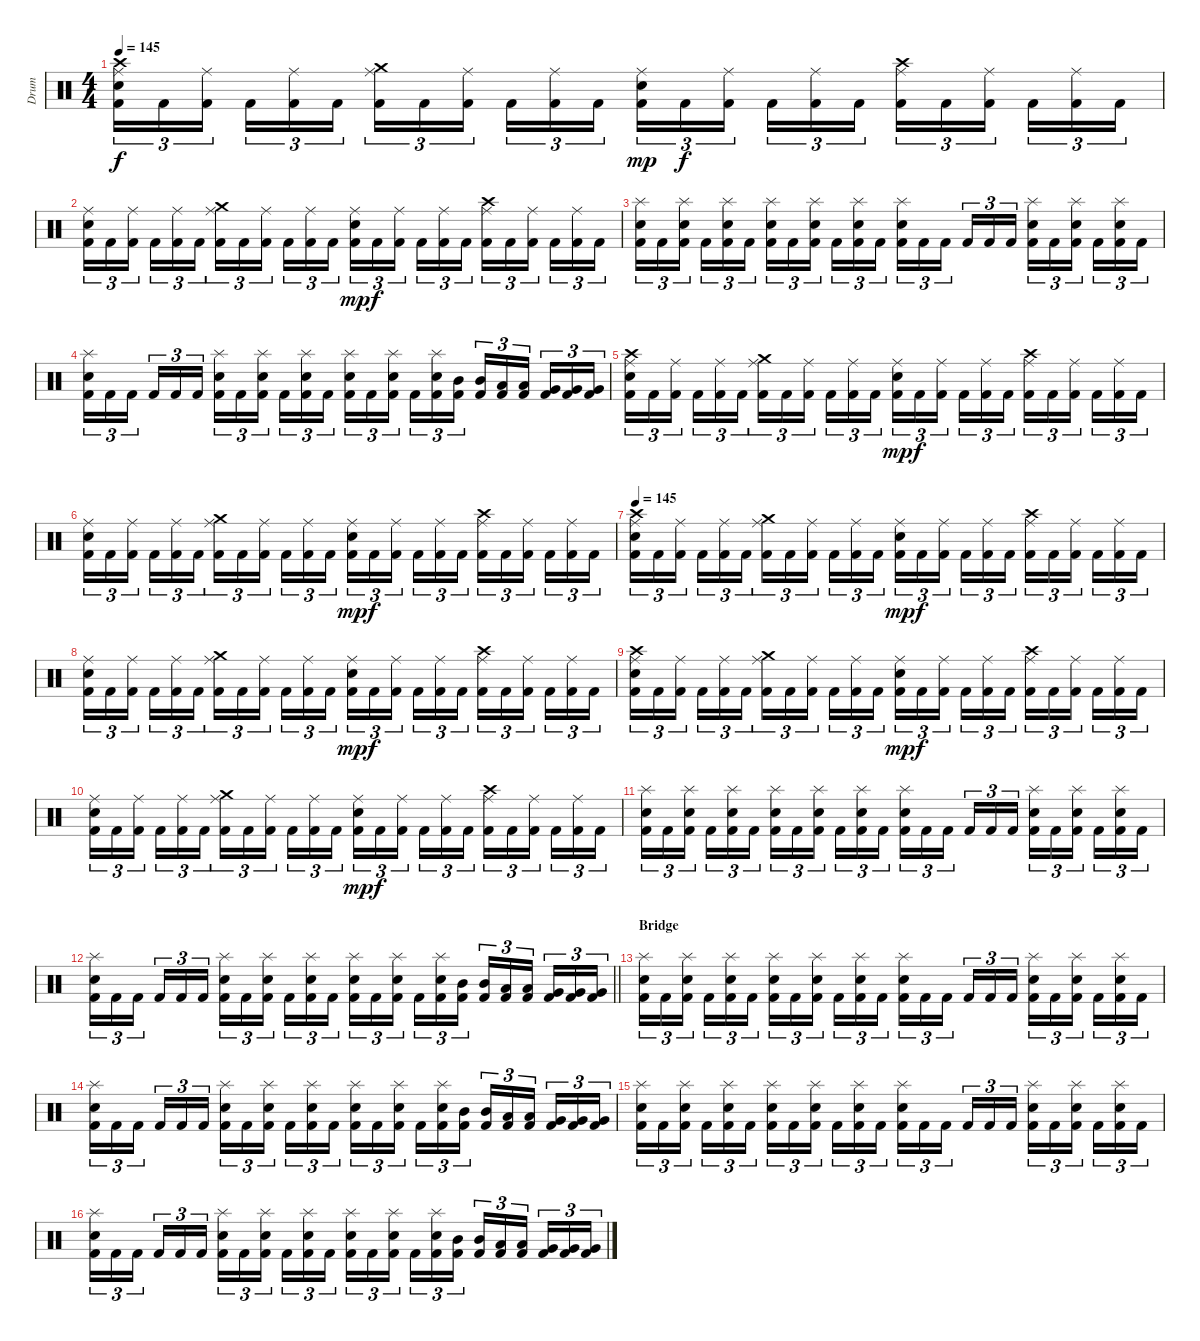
\track ("Drum" "Drum") {instrument percussion}
\staff {score}
\articulation defaults
\ts (4 4)
\tempo 145
\clef neutral
\ks c
("Crash high (hit)" "Ride (middle)" "Electric Snare (hit)" "Kick (hit) 2").16{tu (3 2) dy f} "Kick (hit) 2".16{tu (3 2)} ("Ride (middle)" "Kick (hit) 2").16{tu (3 2) beam splitsecondary} "Kick (hit) 2".16{tu (3 2)} ("Ride (middle)" "Kick (hit) 2").16{tu (3 2)} "Kick (hit) 2".16{tu (3 2)} ("Crash medium (hit)" "Ride (middle)" "Kick (hit) 2").16{tu (3 2)} "Kick (hit) 2".16{tu (3 2)} ("Ride (middle)" "Kick (hit) 2").16{tu (3 2) beam splitsecondary} "Kick (hit) 2".16{tu (3 2)} ("Ride (middle)" "Kick (hit) 2").16{tu (3 2)} "Kick (hit) 2".16{tu (3 2)} ("Ride (middle)" "Electric Snare (hit)" "Kick (hit) 2").16{tu (3 2) dy mp} "Kick (hit) 2".16{tu (3 2) dy f} ("Ride (middle)" "Kick (hit) 2").16{tu (3 2) beam splitsecondary} "Kick (hit) 2".16{tu (3 2)} ("Ride (middle)" "Kick (hit) 2").16{tu (3 2)} "Kick (hit) 2".16{tu (3 2)} ("Crash high (hit)" "Ride (middle)" "Kick (hit) 2").16{tu (3 2)} "Kick (hit) 2".16{tu (3 2)} ("Ride (middle)" "Kick (hit) 2").16{tu (3 2) beam splitsecondary} "Kick (hit) 2".16{tu (3 2)} ("Ride (middle)" "Kick (hit) 2").16{tu (3 2)} "Kick (hit) 2".16{tu (3 2)} |
("Ride (middle)" "Electric Snare (hit)" "Kick (hit) 2").16{tu (3 2)} "Kick (hit) 2".16{tu (3 2)} ("Ride (middle)" "Kick (hit) 2").16{tu (3 2) beam splitsecondary} "Kick (hit) 2".16{tu (3 2)} ("Ride (middle)" "Kick (hit) 2").16{tu (3 2)} "Kick (hit) 2".16{tu (3 2)} ("Crash medium (hit)" "Ride (middle)" "Kick (hit) 2").16{tu (3 2)} "Kick (hit) 2".16{tu (3 2)} ("Ride (middle)" "Kick (hit) 2").16{tu (3 2) beam splitsecondary} "Kick (hit) 2".16{tu (3 2)} ("Ride (middle)" "Kick (hit) 2").16{tu (3 2)} "Kick (hit) 2".16{tu (3 2)} ("Ride (middle)" "Electric Snare (hit)" "Kick (hit) 2").16{tu (3 2) dy mp} "Kick (hit) 2".16{tu (3 2) dy f} ("Ride (middle)" "Kick (hit) 2").16{tu (3 2) beam splitsecondary} "Kick (hit) 2".16{tu (3 2)} ("Ride (middle)" "Kick (hit) 2").16{tu (3 2)} "Kick (hit) 2".16{tu (3 2)} ("Crash high (hit)" "Ride (middle)" "Kick (hit) 2").16{tu (3 2)} "Kick (hit) 2".16{tu (3 2)} ("Ride (middle)" "Kick (hit) 2").16{tu (3 2) beam splitsecondary} "Kick (hit) 2".16{tu (3 2)} ("Ride (middle)" "Kick (hit) 2").16{tu (3 2)} "Kick (hit) 2".16{tu (3 2)} |
("Splash (hit)" "Electric Snare (hit)" "Kick (hit) 2").16{tu (3 2)} "Kick (hit) 2".16{tu (3 2)} ("Splash (hit)" "Electric Snare (hit)" "Kick (hit) 2").16{tu (3 2) beam splitsecondary} "Kick (hit) 2".16{tu (3 2)} ("Splash (hit)" "Electric Snare (hit)" "Kick (hit) 2").16{tu (3 2)} "Kick (hit) 2".16{tu (3 2)} ("Splash (hit)" "Electric Snare (hit)" "Kick (hit) 2").16{tu (3 2)} "Kick (hit) 2".16{tu (3 2)} ("Splash (hit)" "Electric Snare (hit)" "Kick (hit) 2").16{tu (3 2) beam splitsecondary} "Kick (hit) 2".16{tu (3 2)} ("Splash (hit)" "Electric Snare (hit)" "Kick (hit) 2").16{tu (3 2)} "Kick (hit) 2".16{tu (3 2)} ("Splash (hit)" "Electric Snare (hit)" "Kick (hit) 2").16{tu (3 2)} "Kick (hit) 2".16{tu (3 2)} "Kick (hit) 2".16{tu (3 2) beam splitsecondary} "Kick (hit) 2".16{tu (3 2)} "Kick (hit) 2".16{tu (3 2)} "Kick (hit) 2".16{tu (3 2)} ("Splash (hit)" "Electric Snare (hit)" "Kick (hit) 2").16{tu (3 2)} "Kick (hit) 2".16{tu (3 2)} ("Splash (hit)" "Electric Snare (hit)" "Kick (hit) 2").16{tu (3 2) beam splitsecondary} "Kick (hit) 2".16{tu (3 2)} ("Splash (hit)" "Electric Snare (hit)" "Kick (hit) 2").16{tu (3 2)} "Kick (hit) 2".16{tu (3 2)} |
("Splash (hit)" "Electric Snare (hit)" "Kick (hit) 2").16{tu (3 2)} "Kick (hit) 2".16{tu (3 2)} "Kick (hit) 2".16{tu (3 2) beam splitsecondary} "Kick (hit) 2".16{tu (3 2)} "Kick (hit) 2".16{tu (3 2)} "Kick (hit) 2".16{tu (3 2)} ("Splash (hit)" "Electric Snare (hit)" "Kick (hit) 2").16{tu (3 2)} "Kick (hit) 2".16{tu (3 2)} ("Splash (hit)" "Electric Snare (hit)" "Kick (hit) 2").16{tu (3 2) beam splitsecondary} "Kick (hit) 2".16{tu (3 2)} ("Splash (hit)" "Electric Snare (hit)" "Kick (hit) 2").16{tu (3 2)} "Kick (hit) 2".16{tu (3 2)} ("Splash (hit)" "Electric Snare (hit)" "Kick (hit) 2").16{tu (3 2)} "Kick (hit) 2".16{tu (3 2)} ("Splash (hit)" "Electric Snare (hit)" "Kick (hit) 2").16{tu (3 2) beam splitsecondary} "Kick (hit) 2".16{tu (3 2)} ("Splash (hit)" "Electric Snare (hit)" "Kick (hit) 2").16{tu (3 2)} ("Mid Tom (hit)" "Kick (hit) 2").16{tu (3 2)} ("Mid Tom (hit)" "Kick (hit) 2").16{tu (3 2)} ("Low Tom (hit)" "Kick (hit) 2").16{tu (3 2)} ("Low Tom (hit)" "Kick (hit) 2").16{tu (3 2) beam splitsecondary} ("Very Low Tom (hit)" "Kick (hit) 2").16{tu (3 2)} ("Very Low Tom (hit)" "Kick (hit) 2").16{tu (3 2)} ("Very Low Tom (hit)" "Kick (hit) 2").16{tu (3 2)} |
("Crash high (hit)" "Ride (middle)" "Electric Snare (hit)" "Kick (hit) 2").16{tu (3 2)} "Kick (hit) 2".16{tu (3 2)} ("Ride (middle)" "Kick (hit) 2").16{tu (3 2) beam splitsecondary} "Kick (hit) 2".16{tu (3 2)} ("Ride (middle)" "Kick (hit) 2").16{tu (3 2)} "Kick (hit) 2".16{tu (3 2)} ("Crash medium (hit)" "Ride (middle)" "Kick (hit) 2").16{tu (3 2)} "Kick (hit) 2".16{tu (3 2)} ("Ride (middle)" "Kick (hit) 2").16{tu (3 2) beam splitsecondary} "Kick (hit) 2".16{tu (3 2)} ("Ride (middle)" "Kick (hit) 2").16{tu (3 2)} "Kick (hit) 2".16{tu (3 2)} ("Ride (middle)" "Electric Snare (hit)" "Kick (hit) 2").16{tu (3 2) dy mp} "Kick (hit) 2".16{tu (3 2) dy f} ("Ride (middle)" "Kick (hit) 2").16{tu (3 2) beam splitsecondary} "Kick (hit) 2".16{tu (3 2)} ("Ride (middle)" "Kick (hit) 2").16{tu (3 2)} "Kick (hit) 2".16{tu (3 2)} ("Crash high (hit)" "Ride (middle)" "Kick (hit) 2").16{tu (3 2)} "Kick (hit) 2".16{tu (3 2)} ("Ride (middle)" "Kick (hit) 2").16{tu (3 2) beam splitsecondary} "Kick (hit) 2".16{tu (3 2)} ("Ride (middle)" "Kick (hit) 2").16{tu (3 2)} "Kick (hit) 2".16{tu (3 2)} |
("Ride (middle)" "Electric Snare (hit)" "Kick (hit) 2").16{tu (3 2)} "Kick (hit) 2".16{tu (3 2)} ("Ride (middle)" "Kick (hit) 2").16{tu (3 2) beam splitsecondary} "Kick (hit) 2".16{tu (3 2)} ("Ride (middle)" "Kick (hit) 2").16{tu (3 2)} "Kick (hit) 2".16{tu (3 2)} ("Crash medium (hit)" "Ride (middle)" "Kick (hit) 2").16{tu (3 2)} "Kick (hit) 2".16{tu (3 2)} ("Ride (middle)" "Kick (hit) 2").16{tu (3 2) beam splitsecondary} "Kick (hit) 2".16{tu (3 2)} ("Ride (middle)" "Kick (hit) 2").16{tu (3 2)} "Kick (hit) 2".16{tu (3 2)} ("Ride (middle)" "Electric Snare (hit)" "Kick (hit) 2").16{tu (3 2) dy mp} "Kick (hit) 2".16{tu (3 2) dy f} ("Ride (middle)" "Kick (hit) 2").16{tu (3 2) beam splitsecondary} "Kick (hit) 2".16{tu (3 2)} ("Ride (middle)" "Kick (hit) 2").16{tu (3 2)} "Kick (hit) 2".16{tu (3 2)} ("Crash high (hit)" "Ride (middle)" "Kick (hit) 2").16{tu (3 2)} "Kick (hit) 2".16{tu (3 2)} ("Ride (middle)" "Kick (hit) 2").16{tu (3 2) beam splitsecondary} "Kick (hit) 2".16{tu (3 2)} ("Ride (middle)" "Kick (hit) 2").16{tu (3 2)} "Kick (hit) 2".16{tu (3 2)} |
\tempo 145
("Crash high (hit)" "Ride (middle)" "Electric Snare (hit)" "Kick (hit) 2").16{tu (3 2)} "Kick (hit) 2".16{tu (3 2)} ("Ride (middle)" "Kick (hit) 2").16{tu (3 2) beam splitsecondary} "Kick (hit) 2".16{tu (3 2)} ("Ride (middle)" "Kick (hit) 2").16{tu (3 2)} "Kick (hit) 2".16{tu (3 2)} ("Crash medium (hit)" "Ride (middle)" "Kick (hit) 2").16{tu (3 2)} "Kick (hit) 2".16{tu (3 2)} ("Ride (middle)" "Kick (hit) 2").16{tu (3 2) beam splitsecondary} "Kick (hit) 2".16{tu (3 2)} ("Ride (middle)" "Kick (hit) 2").16{tu (3 2)} "Kick (hit) 2".16{tu (3 2)} ("Ride (middle)" "Electric Snare (hit)" "Kick (hit) 2").16{tu (3 2) dy mp} "Kick (hit) 2".16{tu (3 2) dy f} ("Ride (middle)" "Kick (hit) 2").16{tu (3 2) beam splitsecondary} "Kick (hit) 2".16{tu (3 2)} ("Ride (middle)" "Kick (hit) 2").16{tu (3 2)} "Kick (hit) 2".16{tu (3 2)} ("Crash high (hit)" "Ride (middle)" "Kick (hit) 2").16{tu (3 2)} "Kick (hit) 2".16{tu (3 2)} ("Ride (middle)" "Kick (hit) 2").16{tu (3 2) beam splitsecondary} "Kick (hit) 2".16{tu (3 2)} ("Ride (middle)" "Kick (hit) 2").16{tu (3 2)} "Kick (hit) 2".16{tu (3 2)} |
("Ride (middle)" "Electric Snare (hit)" "Kick (hit) 2").16{tu (3 2)} "Kick (hit) 2".16{tu (3 2)} ("Ride (middle)" "Kick (hit) 2").16{tu (3 2) beam splitsecondary} "Kick (hit) 2".16{tu (3 2)} ("Ride (middle)" "Kick (hit) 2").16{tu (3 2)} "Kick (hit) 2".16{tu (3 2)} ("Crash medium (hit)" "Ride (middle)" "Kick (hit) 2").16{tu (3 2)} "Kick (hit) 2".16{tu (3 2)} ("Ride (middle)" "Kick (hit) 2").16{tu (3 2) beam splitsecondary} "Kick (hit) 2".16{tu (3 2)} ("Ride (middle)" "Kick (hit) 2").16{tu (3 2)} "Kick (hit) 2".16{tu (3 2)} ("Ride (middle)" "Electric Snare (hit)" "Kick (hit) 2").16{tu (3 2) dy mp} "Kick (hit) 2".16{tu (3 2) dy f} ("Ride (middle)" "Kick (hit) 2").16{tu (3 2) beam splitsecondary} "Kick (hit) 2".16{tu (3 2)} ("Ride (middle)" "Kick (hit) 2").16{tu (3 2)} "Kick (hit) 2".16{tu (3 2)} ("Crash high (hit)" "Ride (middle)" "Kick (hit) 2").16{tu (3 2)} "Kick (hit) 2".16{tu (3 2)} ("Ride (middle)" "Kick (hit) 2").16{tu (3 2) beam splitsecondary} "Kick (hit) 2".16{tu (3 2)} ("Ride (middle)" "Kick (hit) 2").16{tu (3 2)} "Kick (hit) 2".16{tu (3 2)} |
("Crash high (hit)" "Ride (middle)" "Electric Snare (hit)" "Kick (hit) 2").16{tu (3 2)} "Kick (hit) 2".16{tu (3 2)} ("Ride (middle)" "Kick (hit) 2").16{tu (3 2) beam splitsecondary} "Kick (hit) 2".16{tu (3 2)} ("Ride (middle)" "Kick (hit) 2").16{tu (3 2)} "Kick (hit) 2".16{tu (3 2)} ("Crash medium (hit)" "Ride (middle)" "Kick (hit) 2").16{tu (3 2)} "Kick (hit) 2".16{tu (3 2)} ("Ride (middle)" "Kick (hit) 2").16{tu (3 2) beam splitsecondary} "Kick (hit) 2".16{tu (3 2)} ("Ride (middle)" "Kick (hit) 2").16{tu (3 2)} "Kick (hit) 2".16{tu (3 2)} ("Ride (middle)" "Electric Snare (hit)" "Kick (hit) 2").16{tu (3 2) dy mp} "Kick (hit) 2".16{tu (3 2) dy f} ("Ride (middle)" "Kick (hit) 2").16{tu (3 2) beam splitsecondary} "Kick (hit) 2".16{tu (3 2)} ("Ride (middle)" "Kick (hit) 2").16{tu (3 2)} "Kick (hit) 2".16{tu (3 2)} ("Crash high (hit)" "Ride (middle)" "Kick (hit) 2").16{tu (3 2)} "Kick (hit) 2".16{tu (3 2)} ("Ride (middle)" "Kick (hit) 2").16{tu (3 2) beam splitsecondary} "Kick (hit) 2".16{tu (3 2)} ("Ride (middle)" "Kick (hit) 2").16{tu (3 2)} "Kick (hit) 2".16{tu (3 2)} |
("Ride (middle)" "Electric Snare (hit)" "Kick (hit) 2").16{tu (3 2)} "Kick (hit) 2".16{tu (3 2)} ("Ride (middle)" "Kick (hit) 2").16{tu (3 2) beam splitsecondary} "Kick (hit) 2".16{tu (3 2)} ("Ride (middle)" "Kick (hit) 2").16{tu (3 2)} "Kick (hit) 2".16{tu (3 2)} ("Crash medium (hit)" "Ride (middle)" "Kick (hit) 2").16{tu (3 2)} "Kick (hit) 2".16{tu (3 2)} ("Ride (middle)" "Kick (hit) 2").16{tu (3 2) beam splitsecondary} "Kick (hit) 2".16{tu (3 2)} ("Ride (middle)" "Kick (hit) 2").16{tu (3 2)} "Kick (hit) 2".16{tu (3 2)} ("Ride (middle)" "Electric Snare (hit)" "Kick (hit) 2").16{tu (3 2) dy mp} "Kick (hit) 2".16{tu (3 2) dy f} ("Ride (middle)" "Kick (hit) 2").16{tu (3 2) beam splitsecondary} "Kick (hit) 2".16{tu (3 2)} ("Ride (middle)" "Kick (hit) 2").16{tu (3 2)} "Kick (hit) 2".16{tu (3 2)} ("Crash high (hit)" "Ride (middle)" "Kick (hit) 2").16{tu (3 2)} "Kick (hit) 2".16{tu (3 2)} ("Ride (middle)" "Kick (hit) 2").16{tu (3 2) beam splitsecondary} "Kick (hit) 2".16{tu (3 2)} ("Ride (middle)" "Kick (hit) 2").16{tu (3 2)} "Kick (hit) 2".16{tu (3 2)} |
("Splash (hit)" "Electric Snare (hit)" "Kick (hit) 2").16{tu (3 2)} "Kick (hit) 2".16{tu (3 2)} ("Splash (hit)" "Electric Snare (hit)" "Kick (hit) 2").16{tu (3 2) beam splitsecondary} "Kick (hit) 2".16{tu (3 2)} ("Splash (hit)" "Electric Snare (hit)" "Kick (hit) 2").16{tu (3 2)} "Kick (hit) 2".16{tu (3 2)} ("Splash (hit)" "Electric Snare (hit)" "Kick (hit) 2").16{tu (3 2)} "Kick (hit) 2".16{tu (3 2)} ("Splash (hit)" "Electric Snare (hit)" "Kick (hit) 2").16{tu (3 2) beam splitsecondary} "Kick (hit) 2".16{tu (3 2)} ("Splash (hit)" "Electric Snare (hit)" "Kick (hit) 2").16{tu (3 2)} "Kick (hit) 2".16{tu (3 2)} ("Splash (hit)" "Electric Snare (hit)" "Kick (hit) 2").16{tu (3 2)} "Kick (hit) 2".16{tu (3 2)} "Kick (hit) 2".16{tu (3 2) beam splitsecondary} "Kick (hit) 2".16{tu (3 2)} "Kick (hit) 2".16{tu (3 2)} "Kick (hit) 2".16{tu (3 2)} ("Splash (hit)" "Electric Snare (hit)" "Kick (hit) 2").16{tu (3 2)} "Kick (hit) 2".16{tu (3 2)} ("Splash (hit)" "Electric Snare (hit)" "Kick (hit) 2").16{tu (3 2) beam splitsecondary} "Kick (hit) 2".16{tu (3 2)} ("Splash (hit)" "Electric Snare (hit)" "Kick (hit) 2").16{tu (3 2)} "Kick (hit) 2".16{tu (3 2)} |
\barLineRight lightlight
("Splash (hit)" "Electric Snare (hit)" "Kick (hit) 2").16{tu (3 2)} "Kick (hit) 2".16{tu (3 2)} "Kick (hit) 2".16{tu (3 2) beam splitsecondary} "Kick (hit) 2".16{tu (3 2)} "Kick (hit) 2".16{tu (3 2)} "Kick (hit) 2".16{tu (3 2)} ("Splash (hit)" "Electric Snare (hit)" "Kick (hit) 2").16{tu (3 2)} "Kick (hit) 2".16{tu (3 2)} ("Splash (hit)" "Electric Snare (hit)" "Kick (hit) 2").16{tu (3 2) beam splitsecondary} "Kick (hit) 2".16{tu (3 2)} ("Splash (hit)" "Electric Snare (hit)" "Kick (hit) 2").16{tu (3 2)} "Kick (hit) 2".16{tu (3 2)} ("Splash (hit)" "Electric Snare (hit)" "Kick (hit) 2").16{tu (3 2)} "Kick (hit) 2".16{tu (3 2)} ("Splash (hit)" "Electric Snare (hit)" "Kick (hit) 2").16{tu (3 2) beam splitsecondary} "Kick (hit) 2".16{tu (3 2)} ("Splash (hit)" "Electric Snare (hit)" "Kick (hit) 2").16{tu (3 2)} ("Mid Tom (hit)" "Kick (hit) 2").16{tu (3 2)} ("Mid Tom (hit)" "Kick (hit) 2").16{tu (3 2)} ("Low Tom (hit)" "Kick (hit) 2").16{tu (3 2)} ("Low Tom (hit)" "Kick (hit) 2").16{tu (3 2) beam splitsecondary} ("Very Low Tom (hit)" "Kick (hit) 2").16{tu (3 2)} ("Very Low Tom (hit)" "Kick (hit) 2").16{tu (3 2)} ("Very Low Tom (hit)" "Kick (hit) 2").16{tu (3 2)} |
\section ("" "Bridge")
("Splash (hit)" "Electric Snare (hit)" "Kick (hit) 2").16{tu (3 2)} "Kick (hit) 2".16{tu (3 2)} ("Splash (hit)" "Electric Snare (hit)" "Kick (hit) 2").16{tu (3 2) beam splitsecondary} "Kick (hit) 2".16{tu (3 2)} ("Splash (hit)" "Electric Snare (hit)" "Kick (hit) 2").16{tu (3 2)} "Kick (hit) 2".16{tu (3 2)} ("Splash (hit)" "Electric Snare (hit)" "Kick (hit) 2").16{tu (3 2)} "Kick (hit) 2".16{tu (3 2)} ("Splash (hit)" "Electric Snare (hit)" "Kick (hit) 2").16{tu (3 2) beam splitsecondary} "Kick (hit) 2".16{tu (3 2)} ("Splash (hit)" "Electric Snare (hit)" "Kick (hit) 2").16{tu (3 2)} "Kick (hit) 2".16{tu (3 2)} ("Splash (hit)" "Electric Snare (hit)" "Kick (hit) 2").16{tu (3 2)} "Kick (hit) 2".16{tu (3 2)} "Kick (hit) 2".16{tu (3 2) beam splitsecondary} "Kick (hit) 2".16{tu (3 2)} "Kick (hit) 2".16{tu (3 2)} "Kick (hit) 2".16{tu (3 2)} ("Splash (hit)" "Electric Snare (hit)" "Kick (hit) 2").16{tu (3 2)} "Kick (hit) 2".16{tu (3 2)} ("Splash (hit)" "Electric Snare (hit)" "Kick (hit) 2").16{tu (3 2) beam splitsecondary} "Kick (hit) 2".16{tu (3 2)} ("Splash (hit)" "Electric Snare (hit)" "Kick (hit) 2").16{tu (3 2)} "Kick (hit) 2".16{tu (3 2)} |
("Splash (hit)" "Electric Snare (hit)" "Kick (hit) 2").16{tu (3 2)} "Kick (hit) 2".16{tu (3 2)} "Kick (hit) 2".16{tu (3 2) beam splitsecondary} "Kick (hit) 2".16{tu (3 2)} "Kick (hit) 2".16{tu (3 2)} "Kick (hit) 2".16{tu (3 2)} ("Splash (hit)" "Electric Snare (hit)" "Kick (hit) 2").16{tu (3 2)} "Kick (hit) 2".16{tu (3 2)} ("Splash (hit)" "Electric Snare (hit)" "Kick (hit) 2").16{tu (3 2) beam splitsecondary} "Kick (hit) 2".16{tu (3 2)} ("Splash (hit)" "Electric Snare (hit)" "Kick (hit) 2").16{tu (3 2)} "Kick (hit) 2".16{tu (3 2)} ("Splash (hit)" "Electric Snare (hit)" "Kick (hit) 2").16{tu (3 2)} "Kick (hit) 2".16{tu (3 2)} ("Splash (hit)" "Electric Snare (hit)" "Kick (hit) 2").16{tu (3 2) beam splitsecondary} "Kick (hit) 2".16{tu (3 2)} ("Splash (hit)" "Electric Snare (hit)" "Kick (hit) 2").16{tu (3 2)} ("Mid Tom (hit)" "Kick (hit) 2").16{tu (3 2)} ("Mid Tom (hit)" "Kick (hit) 2").16{tu (3 2)} ("Low Tom (hit)" "Kick (hit) 2").16{tu (3 2)} ("Low Tom (hit)" "Kick (hit) 2").16{tu (3 2) beam splitsecondary} ("Very Low Tom (hit)" "Kick (hit) 2").16{tu (3 2)} ("Very Low Tom (hit)" "Kick (hit) 2").16{tu (3 2)} ("Very Low Tom (hit)" "Kick (hit) 2").16{tu (3 2)} |
("Splash (hit)" "Electric Snare (hit)" "Kick (hit) 2").16{tu (3 2)} "Kick (hit) 2".16{tu (3 2)} ("Splash (hit)" "Electric Snare (hit)" "Kick (hit) 2").16{tu (3 2) beam splitsecondary} "Kick (hit) 2".16{tu (3 2)} ("Splash (hit)" "Electric Snare (hit)" "Kick (hit) 2").16{tu (3 2)} "Kick (hit) 2".16{tu (3 2)} ("Splash (hit)" "Electric Snare (hit)" "Kick (hit) 2").16{tu (3 2)} "Kick (hit) 2".16{tu (3 2)} ("Splash (hit)" "Electric Snare (hit)" "Kick (hit) 2").16{tu (3 2) beam splitsecondary} "Kick (hit) 2".16{tu (3 2)} ("Splash (hit)" "Electric Snare (hit)" "Kick (hit) 2").16{tu (3 2)} "Kick (hit) 2".16{tu (3 2)} ("Splash (hit)" "Electric Snare (hit)" "Kick (hit) 2").16{tu (3 2)} "Kick (hit) 2".16{tu (3 2)} "Kick (hit) 2".16{tu (3 2) beam splitsecondary} "Kick (hit) 2".16{tu (3 2)} "Kick (hit) 2".16{tu (3 2)} "Kick (hit) 2".16{tu (3 2)} ("Splash (hit)" "Electric Snare (hit)" "Kick (hit) 2").16{tu (3 2)} "Kick (hit) 2".16{tu (3 2)} ("Splash (hit)" "Electric Snare (hit)" "Kick (hit) 2").16{tu (3 2) beam splitsecondary} "Kick (hit) 2".16{tu (3 2)} ("Splash (hit)" "Electric Snare (hit)" "Kick (hit) 2").16{tu (3 2)} "Kick (hit) 2".16{tu (3 2)} |
("Splash (hit)" "Electric Snare (hit)" "Kick (hit) 2").16{tu (3 2)} "Kick (hit) 2".16{tu (3 2)} "Kick (hit) 2".16{tu (3 2) beam splitsecondary} "Kick (hit) 2".16{tu (3 2)} "Kick (hit) 2".16{tu (3 2)} "Kick (hit) 2".16{tu (3 2)} ("Splash (hit)" "Electric Snare (hit)" "Kick (hit) 2").16{tu (3 2)} "Kick (hit) 2".16{tu (3 2)} ("Splash (hit)" "Electric Snare (hit)" "Kick (hit) 2").16{tu (3 2) beam splitsecondary} "Kick (hit) 2".16{tu (3 2)} ("Splash (hit)" "Electric Snare (hit)" "Kick (hit) 2").16{tu (3 2)} "Kick (hit) 2".16{tu (3 2)} ("Splash (hit)" "Electric Snare (hit)" "Kick (hit) 2").16{tu (3 2)} "Kick (hit) 2".16{tu (3 2)} ("Splash (hit)" "Electric Snare (hit)" "Kick (hit) 2").16{tu (3 2) beam splitsecondary} "Kick (hit) 2".16{tu (3 2)} ("Splash (hit)" "Electric Snare (hit)" "Kick (hit) 2").16{tu (3 2)} ("Mid Tom (hit)" "Kick (hit) 2").16{tu (3 2)} ("Mid Tom (hit)" "Kick (hit) 2").16{tu (3 2)} ("Low Tom (hit)" "Kick (hit) 2").16{tu (3 2)} ("Low Tom (hit)" "Kick (hit) 2").16{tu (3 2) beam splitsecondary} ("Very Low Tom (hit)" "Kick (hit) 2").16{tu (3 2)} ("Very Low Tom (hit)" "Kick (hit) 2").16{tu (3 2)} ("Very Low Tom (hit)" "Kick (hit) 2").16{tu (3 2)}
